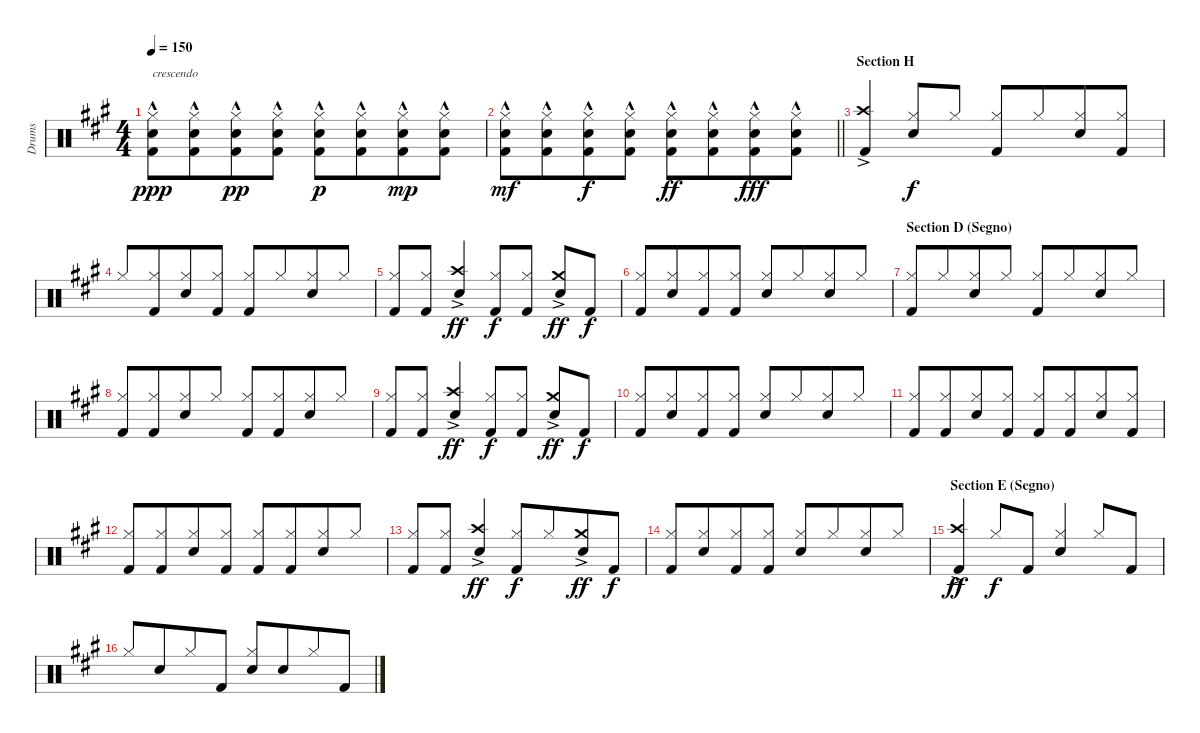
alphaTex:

\track ("Drums" "Drums") {instrument percussion}
\staff {score}
\articulation defaults
\ts (4 4)
\tempo 150
\clef neutral
\ks a
("Hi-Hat (closed)"{hac} "Snare (hit) 2" "Kick (hit) 2").8{txt "crescendo" dy ppp} ("Hi-Hat (closed)"{hac} "Snare (hit) 2" "Kick (hit) 2").8{beam merge} ("Hi-Hat (closed)"{hac} "Snare (hit) 2" "Kick (hit) 2").8{dy pp} ("Hi-Hat (closed)"{hac} "Snare (hit) 2" "Kick (hit) 2").8 ("Hi-Hat (closed)"{hac} "Snare (hit) 2" "Kick (hit) 2").8{dy p} ("Hi-Hat (closed)"{hac} "Snare (hit) 2" "Kick (hit) 2").8{beam merge} ("Hi-Hat (closed)"{hac} "Snare (hit) 2" "Kick (hit) 2").8{dy mp} ("Hi-Hat (closed)"{hac} "Snare (hit) 2" "Kick (hit) 2").8 |
\barLineRight lightlight
("Hi-Hat (closed)"{hac} "Snare (hit) 2" "Kick (hit) 2").8{dy mf} ("Hi-Hat (closed)"{hac} "Snare (hit) 2" "Kick (hit) 2").8{beam merge} ("Hi-Hat (closed)"{hac} "Snare (hit) 2" "Kick (hit) 2").8{dy f} ("Hi-Hat (closed)"{hac} "Snare (hit) 2" "Kick (hit) 2").8 ("Hi-Hat (closed)"{hac} "Snare (hit) 2" "Kick (hit) 2").8{dy ff} ("Hi-Hat (closed)"{hac} "Snare (hit) 2" "Kick (hit) 2").8{beam merge} ("Hi-Hat (closed)"{hac} "Snare (hit) 2" "Kick (hit) 2").8{dy fff} ("Hi-Hat (closed)"{hac} "Snare (hit) 2" "Kick (hit) 2").8 |
\section ("" "Section H")
("Crash high (hit)"{ac} "Kick (hit) 2").4{beam Up beam merge} ("Hi-Hat (closed)" "Snare (hit) 2").8{dy f beam Up} "Hi-Hat (closed)".8{beam Up} ("Hi-Hat (closed)" "Kick (hit) 2").8{beam Up} "Hi-Hat (closed)".8{beam Up beam merge} ("Hi-Hat (closed)" "Snare (hit) 2").8{beam Up} ("Hi-Hat (closed)" "Kick (hit) 2").8{beam Up} |
"Hi-Hat (closed)".8{beam Up} ("Hi-Hat (closed)" "Kick (hit) 2").8{beam Up beam merge} ("Hi-Hat (closed)" "Snare (hit) 2").8{beam Up} ("Hi-Hat (closed)" "Kick (hit) 2").8{beam Up} ("Hi-Hat (closed)" "Kick (hit) 2").8{beam Up} "Hi-Hat (closed)".8{beam Up beam merge} ("Hi-Hat (closed)" "Snare (hit) 2").8{beam Up} "Hi-Hat (closed)".8{beam Up} |
("Hi-Hat (closed)" "Kick (hit) 2").8{beam Up} ("Hi-Hat (closed)" "Kick (hit) 2").8{beam Up} ("Crash high (hit)"{ac} "Snare (hit) 2").4{dy ff beam Up} ("Hi-Hat (closed)" "Kick (hit) 2").8{dy f beam Up} ("Hi-Hat (closed)" "Kick (hit) 2").8{beam Up} ("Crash medium (hit)"{ac} "Snare (hit) 2").8{dy ff beam Up} "Kick (hit) 2".8{dy f beam Up} |
("Hi-Hat (closed)" "Kick (hit) 2").8{beam Up} ("Hi-Hat (closed)" "Snare (hit) 2").8{beam Up beam merge} ("Hi-Hat (closed)" "Kick (hit) 2").8{beam Up} ("Hi-Hat (closed)" "Kick (hit) 2").8{beam Up} ("Hi-Hat (closed)" "Snare (hit) 2").8{beam Up} "Hi-Hat (closed)".8{beam Up beam merge} ("Hi-Hat (closed)" "Snare (hit) 2").8{beam Up} "Hi-Hat (closed)".8{beam Up} |
\section ("" "Section D (Segno)")
("Hi-Hat (closed)" "Kick (hit) 2").8{beam Up} "Hi-Hat (closed)".8{beam Up beam merge} ("Hi-Hat (closed)" "Snare (hit) 2").8{beam Up} "Hi-Hat (closed)".8{beam Up} ("Hi-Hat (closed)" "Kick (hit) 2").8{beam Up} "Hi-Hat (closed)".8{beam Up beam merge} ("Hi-Hat (closed)" "Snare (hit) 2").8{beam Up} "Hi-Hat (closed)".8{beam Up} |
("Hi-Hat (closed)" "Kick (hit) 2").8{beam Up} ("Hi-Hat (closed)" "Kick (hit) 2").8{beam Up beam merge} ("Hi-Hat (closed)" "Snare (hit) 2").8{beam Up} "Hi-Hat (closed)".8{beam Up} ("Hi-Hat (closed)" "Kick (hit) 2").8{beam Up} ("Hi-Hat (closed)" "Kick (hit) 2").8{beam Up beam merge} ("Hi-Hat (closed)" "Snare (hit) 2").8{beam Up} "Hi-Hat (closed)".8{beam Up} |
("Hi-Hat (closed)" "Kick (hit) 2").8{beam Up} ("Hi-Hat (closed)" "Kick (hit) 2").8{beam Up} ("Crash high (hit)"{ac} "Snare (hit) 2").4{dy ff beam Up} ("Hi-Hat (closed)" "Kick (hit) 2").8{dy f beam Up} ("Hi-Hat (closed)" "Kick (hit) 2").8{beam Up} ("Crash medium (hit)"{ac} "Snare (hit) 2").8{dy ff beam Up} "Kick (hit) 2".8{dy f beam Up} |
("Hi-Hat (closed)" "Kick (hit) 2").8{beam Up} ("Hi-Hat (closed)" "Snare (hit) 2").8{beam Up beam merge} ("Hi-Hat (closed)" "Kick (hit) 2").8{beam Up} ("Hi-Hat (closed)" "Kick (hit) 2").8{beam Up} ("Hi-Hat (closed)" "Snare (hit) 2").8{beam Up} "Hi-Hat (closed)".8{beam Up beam merge} ("Hi-Hat (closed)" "Snare (hit) 2").8{beam Up} "Hi-Hat (closed)".8{beam Up} |
("Hi-Hat (closed)" "Kick (hit) 2").8{beam Up} ("Hi-Hat (closed)" "Kick (hit) 2").8{beam Up beam merge} ("Hi-Hat (closed)" "Snare (hit) 2").8{beam Up} ("Hi-Hat (closed)" "Kick (hit) 2").8{beam Up} ("Hi-Hat (closed)" "Kick (hit) 2").8{beam Up} ("Hi-Hat (closed)" "Kick (hit) 2").8{beam Up beam merge} ("Hi-Hat (closed)" "Snare (hit) 2").8{beam Up} ("Hi-Hat (closed)" "Kick (hit) 2").8{beam Up} |
("Hi-Hat (closed)" "Kick (hit) 2").8{beam Up} ("Hi-Hat (closed)" "Kick (hit) 2").8{beam Up beam merge} ("Hi-Hat (closed)" "Snare (hit) 2").8{beam Up} ("Hi-Hat (closed)" "Kick (hit) 2").8{beam Up} ("Hi-Hat (closed)" "Kick (hit) 2").8{beam Up} ("Hi-Hat (closed)" "Kick (hit) 2").8{beam Up beam merge} ("Hi-Hat (closed)" "Snare (hit) 2").8{beam Up} "Hi-Hat (closed)".8{beam Up} |
("Hi-Hat (closed)" "Kick (hit) 2").8{beam Up} ("Hi-Hat (closed)" "Kick (hit) 2").8{beam Up} ("Crash high (hit)"{ac} "Snare (hit) 2").4{dy ff beam Up} ("Hi-Hat (closed)" "Kick (hit) 2").8{dy f beam Up} "Hi-Hat (closed)".8{beam Up beam merge} ("Crash medium (hit)"{ac} "Snare (hit) 2").8{dy ff beam Up} "Kick (hit) 2".8{dy f beam Up} |
("Hi-Hat (closed)" "Kick (hit) 2").8{beam Up} ("Hi-Hat (closed)" "Snare (hit) 2").8{beam Up beam merge} ("Hi-Hat (closed)" "Kick (hit) 2").8{beam Up} ("Hi-Hat (closed)" "Kick (hit) 2").8{beam Up} ("Hi-Hat (closed)" "Snare (hit) 2").8{beam Up} "Hi-Hat (closed)".8{beam Up beam merge} ("Hi-Hat (closed)" "Snare (hit) 2").8{beam Up} "Hi-Hat (closed)".8{beam Up} |
\section ("" "Section E (Segno)")
("Crash high (hit)"{ac} "Kick (hit) 2").4{dy ff beam Up} "Hi-Hat (closed)".8{dy f beam Up} "Kick (hit) 2".8{beam Up} ("Hi-Hat (closed)" "Snare (hit) 2").4{beam Up} "Hi-Hat (closed)".8{beam Up} "Kick (hit) 2".8{beam Up} |
"Hi-Hat (closed)".8{beam Up} "Snare (hit) 2".8{beam Up beam merge} "Hi-Hat (closed)".8{beam Up} "Kick (hit) 2".8{beam Up} ("Hi-Hat (closed)" "Snare (hit) 2").8{beam Up} "Snare (hit) 2".8{beam Up beam merge} "Hi-Hat (closed)".8{beam Up} "Kick (hit) 2".8{beam Up}
